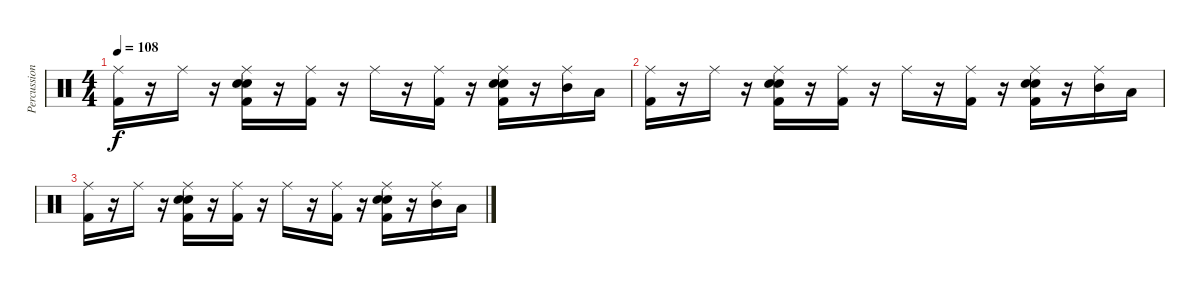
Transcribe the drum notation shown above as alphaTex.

\track ("Percussions" "Percussion") {instrument percussion}
\staff {score}
\articulation defaults
\ts (4 4)
\tempo 108
\clef neutral
\ks c
("Ride (middle)" "Kick (hit) 2").16{dy f} r.16 "Ride (middle)".16 r.16 ("Ride (middle)" "Kick (hit) 2" "Snare (hit) 2" "Electric Snare (hit)").16 r.16 ("Ride (middle)" "Kick (hit) 2").16 r.16 "Ride (middle)".16 r.16 ("Ride (middle)" "Kick (hit) 2").16 r.16 ("Ride (middle)" "Kick (hit) 2" "Snare (hit) 2" "Electric Snare (hit)").16 r.16 ("Ride (middle)" "Mid Tom (hit)").16 "Low Tom (hit)".16 |
("Ride (middle)" "Kick (hit) 2").16 r.16 "Ride (middle)".16 r.16 ("Ride (middle)" "Kick (hit) 2" "Snare (hit) 2" "Electric Snare (hit)").16 r.16 ("Ride (middle)" "Kick (hit) 2").16 r.16 "Ride (middle)".16 r.16 ("Ride (middle)" "Kick (hit) 2").16 r.16 ("Ride (middle)" "Kick (hit) 2" "Snare (hit) 2" "Electric Snare (hit)").16 r.16 ("Ride (middle)" "Mid Tom (hit)").16 "Low Tom (hit)".16 |
("Ride (middle)" "Kick (hit) 2").16 r.16 "Ride (middle)".16 r.16 ("Ride (middle)" "Kick (hit) 2" "Snare (hit) 2" "Electric Snare (hit)").16 r.16 ("Ride (middle)" "Kick (hit) 2").16 r.16 "Ride (middle)".16 r.16 ("Ride (middle)" "Kick (hit) 2").16 r.16 ("Ride (middle)" "Kick (hit) 2" "Snare (hit) 2" "Electric Snare (hit)").16 r.16 ("Ride (middle)" "Mid Tom (hit)").16 "Low Tom (hit)".16
